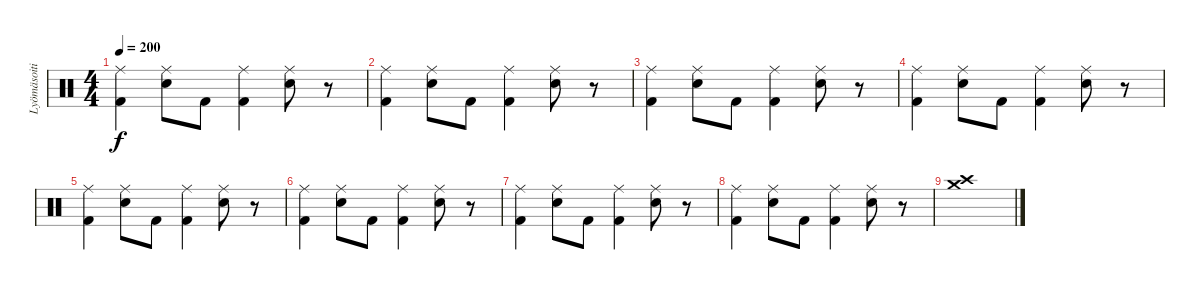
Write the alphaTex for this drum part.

\track ("Lyömäsoitin" "Lyömäsoiti") {instrument percussion}
\staff {score}
\articulation defaults
\ts (4 4)
\tempo 200
\clef neutral
\ks c
("Ride (middle)" "Kick (hit) 2").4{dy f} ("Ride (middle)" "Snare (hit) 2").8 "Kick (hit) 2".8 ("Ride (middle)" "Kick (hit) 2").4 ("Ride (middle)" "Snare (hit) 2").8 r.8 |
("Ride (middle)" "Kick (hit) 2").4 ("Ride (middle)" "Snare (hit) 2").8 "Kick (hit) 2".8 ("Ride (middle)" "Kick (hit) 2").4 ("Ride (middle)" "Snare (hit) 2").8 r.8 |
("Ride (middle)" "Kick (hit) 2").4 ("Ride (middle)" "Snare (hit) 2").8 "Kick (hit) 2".8 ("Ride (middle)" "Kick (hit) 2").4 ("Ride (middle)" "Snare (hit) 2").8 r.8 |
("Ride (middle)" "Kick (hit) 2").4 ("Ride (middle)" "Snare (hit) 2").8 "Kick (hit) 2".8 ("Ride (middle)" "Kick (hit) 2").4 ("Ride (middle)" "Snare (hit) 2").8 r.8 |
("Ride (middle)" "Kick (hit) 2").4 ("Ride (middle)" "Snare (hit) 2").8 "Kick (hit) 2".8 ("Ride (middle)" "Kick (hit) 2").4 ("Ride (middle)" "Snare (hit) 2").8 r.8 |
("Ride (middle)" "Kick (hit) 2").4 ("Ride (middle)" "Snare (hit) 2").8 "Kick (hit) 2".8 ("Ride (middle)" "Kick (hit) 2").4 ("Ride (middle)" "Snare (hit) 2").8 r.8 |
("Ride (middle)" "Kick (hit) 2").4 ("Ride (middle)" "Snare (hit) 2").8 "Kick (hit) 2".8 ("Ride (middle)" "Kick (hit) 2").4 ("Ride (middle)" "Snare (hit) 2").8 r.8 |
("Ride (middle)" "Kick (hit) 2").4 ("Ride (middle)" "Snare (hit) 2").8 "Kick (hit) 2".8 ("Ride (middle)" "Kick (hit) 2").4 ("Ride (middle)" "Snare (hit) 2").8 r.8 |
("Crash high (hit)" "Crash medium (hit)").1
